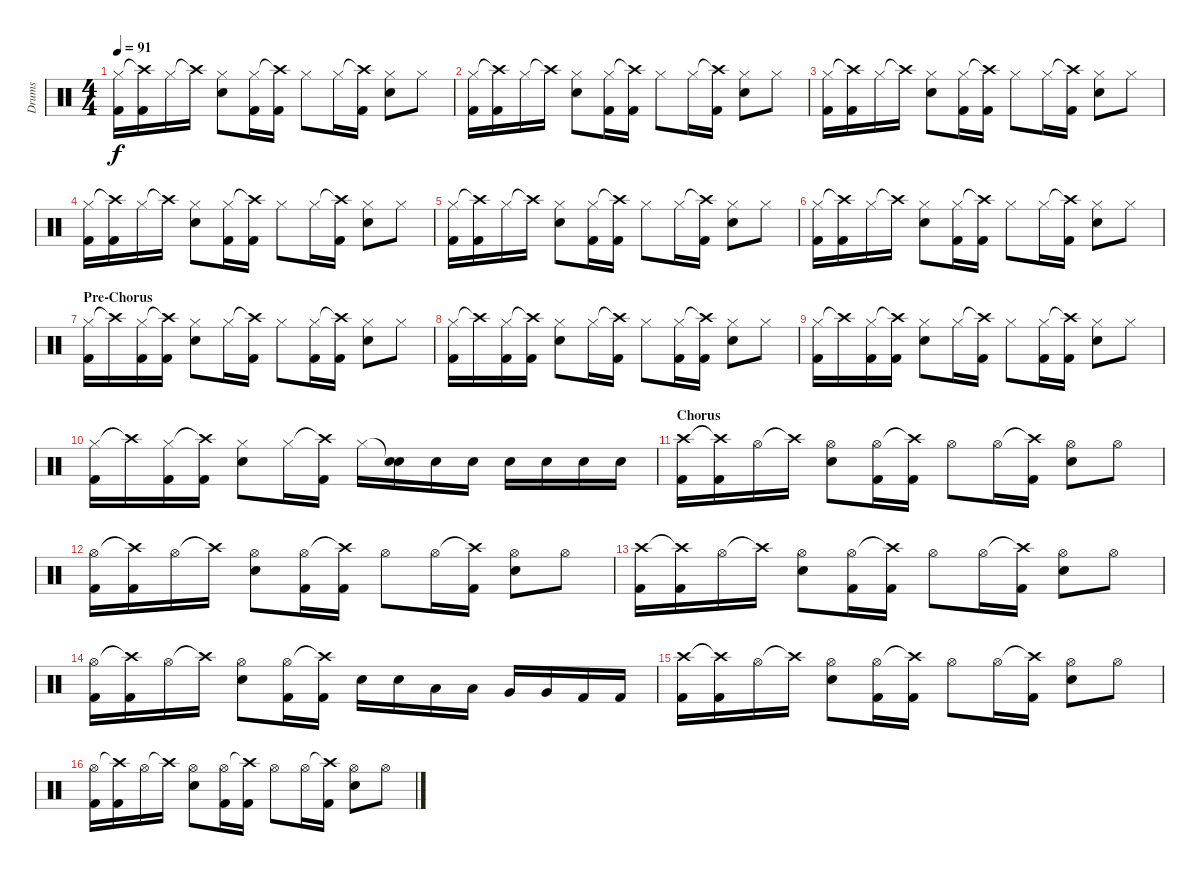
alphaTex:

\track ("Drums" "Drums") {instrument percussion}
\staff {score}
\articulation defaults
\ts (4 4)
\tempo 91
\clef neutral
\ks c
("Hi-Hat (closed)" "Kick (hit) 2").16{dy f} ("Crash high (hit)"{t} "Kick (hit) 2").16 "Hi-Hat (closed)".16 "Crash high (hit)"{t}.16 ("Hi-Hat (closed)" "Electric Snare (hit)").8 ("Hi-Hat (closed)" "Kick (hit) 2").16 ("Crash high (hit)"{t} "Kick (hit) 2").16 "Hi-Hat (closed)".8 "Hi-Hat (closed)".16 ("Crash high (hit)"{t} "Kick (hit) 2").16 ("Hi-Hat (closed)" "Electric Snare (hit)").8 "Hi-Hat (closed)".8 |
("Hi-Hat (closed)" "Kick (hit) 2").16 ("Crash high (hit)"{t} "Kick (hit) 2").16 "Hi-Hat (closed)".16 "Crash high (hit)"{t}.16 ("Hi-Hat (closed)" "Electric Snare (hit)").8 ("Hi-Hat (closed)" "Kick (hit) 2").16 ("Crash high (hit)"{t} "Kick (hit) 2").16 "Hi-Hat (closed)".8 "Hi-Hat (closed)".16 ("Crash high (hit)"{t} "Kick (hit) 2").16 ("Hi-Hat (closed)" "Electric Snare (hit)").8 "Hi-Hat (closed)".8 |
("Hi-Hat (closed)" "Kick (hit) 2").16 ("Crash high (hit)"{t} "Kick (hit) 2").16 "Hi-Hat (closed)".16 "Crash high (hit)"{t}.16 ("Hi-Hat (closed)" "Electric Snare (hit)").8 ("Hi-Hat (closed)" "Kick (hit) 2").16 ("Crash high (hit)"{t} "Kick (hit) 2").16 "Hi-Hat (closed)".8 "Hi-Hat (closed)".16 ("Crash high (hit)"{t} "Kick (hit) 2").16 ("Hi-Hat (closed)" "Electric Snare (hit)").8 "Hi-Hat (closed)".8 |
("Hi-Hat (closed)" "Kick (hit) 2").16 ("Crash high (hit)"{t} "Kick (hit) 2").16 "Hi-Hat (closed)".16 "Crash high (hit)"{t}.16 ("Hi-Hat (closed)" "Electric Snare (hit)").8 ("Hi-Hat (closed)" "Kick (hit) 2").16 ("Crash high (hit)"{t} "Kick (hit) 2").16 "Hi-Hat (closed)".8 "Hi-Hat (closed)".16 ("Crash high (hit)"{t} "Kick (hit) 2").16 ("Hi-Hat (closed)" "Electric Snare (hit)").8 "Hi-Hat (closed)".8 |
("Hi-Hat (closed)" "Kick (hit) 2").16 ("Crash high (hit)"{t} "Kick (hit) 2").16 "Hi-Hat (closed)".16 "Crash high (hit)"{t}.16 ("Hi-Hat (closed)" "Electric Snare (hit)").8 ("Hi-Hat (closed)" "Kick (hit) 2").16 ("Crash high (hit)"{t} "Kick (hit) 2").16 "Hi-Hat (closed)".8 "Hi-Hat (closed)".16 ("Crash high (hit)"{t} "Kick (hit) 2").16 ("Hi-Hat (closed)" "Electric Snare (hit)").8 "Hi-Hat (closed)".8 |
("Hi-Hat (closed)" "Kick (hit) 2").16 ("Crash high (hit)"{t} "Kick (hit) 2").16 "Hi-Hat (closed)".16 "Crash high (hit)"{t}.16 ("Hi-Hat (closed)" "Electric Snare (hit)").8 ("Hi-Hat (closed)" "Kick (hit) 2").16 ("Crash high (hit)"{t} "Kick (hit) 2").16 "Hi-Hat (closed)".8 "Hi-Hat (closed)".16 ("Crash high (hit)"{t} "Kick (hit) 2").16 ("Hi-Hat (closed)" "Electric Snare (hit)").8 "Hi-Hat (closed)".8 |
\section ("" "Pre-Chorus")
("Hi-Hat (closed)" "Kick (hit) 2").16 "Crash high (hit)"{t}.16 ("Hi-Hat (closed)" "Kick (hit) 2").16 ("Crash high (hit)"{t} "Kick (hit) 2").16 ("Hi-Hat (closed)" "Electric Snare (hit)").8 "Hi-Hat (closed)".16 ("Crash high (hit)"{t} "Kick (hit) 2").16 "Hi-Hat (closed)".8 ("Hi-Hat (closed)" "Kick (hit) 2").16 ("Crash high (hit)"{t} "Kick (hit) 2").16 ("Hi-Hat (closed)" "Electric Snare (hit)").8 "Hi-Hat (closed)".8 |
("Hi-Hat (closed)" "Kick (hit) 2").16 "Crash high (hit)"{t}.16 ("Hi-Hat (closed)" "Kick (hit) 2").16 ("Crash high (hit)"{t} "Kick (hit) 2").16 ("Hi-Hat (closed)" "Electric Snare (hit)").8 "Hi-Hat (closed)".16 ("Crash high (hit)"{t} "Kick (hit) 2").16 "Hi-Hat (closed)".8 ("Hi-Hat (closed)" "Kick (hit) 2").16 ("Crash high (hit)"{t} "Kick (hit) 2").16 ("Hi-Hat (closed)" "Electric Snare (hit)").8 "Hi-Hat (closed)".8 |
("Hi-Hat (closed)" "Kick (hit) 2").16 "Crash high (hit)"{t}.16 ("Hi-Hat (closed)" "Kick (hit) 2").16 ("Crash high (hit)"{t} "Kick (hit) 2").16 ("Hi-Hat (closed)" "Electric Snare (hit)").8 "Hi-Hat (closed)".16 ("Crash high (hit)"{t} "Kick (hit) 2").16 "Hi-Hat (closed)".8 ("Hi-Hat (closed)" "Kick (hit) 2").16 ("Crash high (hit)"{t} "Kick (hit) 2").16 ("Hi-Hat (closed)" "Electric Snare (hit)").8 "Hi-Hat (closed)".8 |
("Hi-Hat (closed)" "Kick (hit) 2").16 "Crash high (hit)"{t}.16 ("Hi-Hat (closed)" "Kick (hit) 2").16 ("Crash high (hit)"{t} "Kick (hit) 2").16 ("Hi-Hat (closed)" "Electric Snare (hit)").8 "Hi-Hat (closed)".16 ("Crash high (hit)"{t} "Kick (hit) 2").16 "Hi-Hat (closed)".16 ("Snare (hit)"{t} "Electric Snare (hit)").16 "Electric Snare (hit)".16 "Electric Snare (hit)".16 "Electric Snare (hit)".16 "Electric Snare (hit)".16 "Electric Snare (hit)".16 "Electric Snare (hit)".16 |
\section ("" "Chorus")
("Crash high (hit)" "Kick (hit) 2").16 ("Crash high (hit)"{t} "Kick (hit) 2").16 "Hi-Hat (open)".16 "Crash high (hit)"{t}.16 ("Hi-Hat (open)" "Electric Snare (hit)").8 ("Hi-Hat (open)" "Kick (hit) 2").16 ("Crash high (hit)"{t} "Kick (hit) 2").16 "Hi-Hat (open)".8 "Hi-Hat (open)".16 ("Crash high (hit)"{t} "Kick (hit) 2").16 ("Hi-Hat (open)" "Electric Snare (hit)").8 "Hi-Hat (open)".8 |
("Hi-Hat (open)" "Kick (hit) 2").16 ("Crash high (hit)"{t} "Kick (hit) 2").16 "Hi-Hat (open)".16 "Crash high (hit)"{t}.16 ("Hi-Hat (open)" "Electric Snare (hit)").8 ("Hi-Hat (open)" "Kick (hit) 2").16 ("Crash high (hit)"{t} "Kick (hit) 2").16 "Hi-Hat (open)".8 "Hi-Hat (open)".16 ("Crash high (hit)"{t} "Kick (hit) 2").16 ("Hi-Hat (open)" "Electric Snare (hit)").8 "Hi-Hat (open)".8 |
("Crash high (hit)" "Kick (hit) 2").16 ("Crash high (hit)"{t} "Kick (hit) 2").16 "Hi-Hat (open)".16 "Crash high (hit)"{t}.16 ("Hi-Hat (open)" "Electric Snare (hit)").8 ("Hi-Hat (open)" "Kick (hit) 2").16 ("Crash high (hit)"{t} "Kick (hit) 2").16 "Hi-Hat (open)".8 "Hi-Hat (open)".16 ("Crash high (hit)"{t} "Kick (hit) 2").16 ("Hi-Hat (open)" "Electric Snare (hit)").8 "Hi-Hat (open)".8 |
("Hi-Hat (open)" "Kick (hit) 2").16 ("Crash high (hit)"{t} "Kick (hit) 2").16 "Hi-Hat (open)".16 "Crash high (hit)"{t}.16 ("Hi-Hat (open)" "Electric Snare (hit)").8 ("Hi-Hat (open)" "Kick (hit) 2").16 ("Crash high (hit)"{t} "Kick (hit) 2").16 "Electric Snare (hit)".16 "Electric Snare (hit)".16 "Low Tom (hit)".16 "Low Tom (hit)".16 "Very Low Tom (hit)".16 "Very Low Tom (hit)".16 "Kick (hit) 2".16 "Kick (hit) 2".16 |
("Crash high (hit)" "Kick (hit) 2").16 ("Crash high (hit)"{t} "Kick (hit) 2").16 "Hi-Hat (open)".16 "Crash high (hit)"{t}.16 ("Hi-Hat (open)" "Electric Snare (hit)").8 ("Hi-Hat (open)" "Kick (hit) 2").16 ("Crash high (hit)"{t} "Kick (hit) 2").16 "Hi-Hat (open)".8 "Hi-Hat (open)".16 ("Crash high (hit)"{t} "Kick (hit) 2").16 ("Hi-Hat (open)" "Electric Snare (hit)").8 "Hi-Hat (open)".8 |
("Hi-Hat (open)" "Kick (hit) 2").16 ("Crash high (hit)"{t} "Kick (hit) 2").16 "Hi-Hat (open)".16 "Crash high (hit)"{t}.16 ("Hi-Hat (open)" "Electric Snare (hit)").8 ("Hi-Hat (open)" "Kick (hit) 2").16 ("Crash high (hit)"{t} "Kick (hit) 2").16 "Hi-Hat (open)".8 "Hi-Hat (open)".16 ("Crash high (hit)"{t} "Kick (hit) 2").16 ("Hi-Hat (open)" "Electric Snare (hit)").8 "Hi-Hat (open)".8
